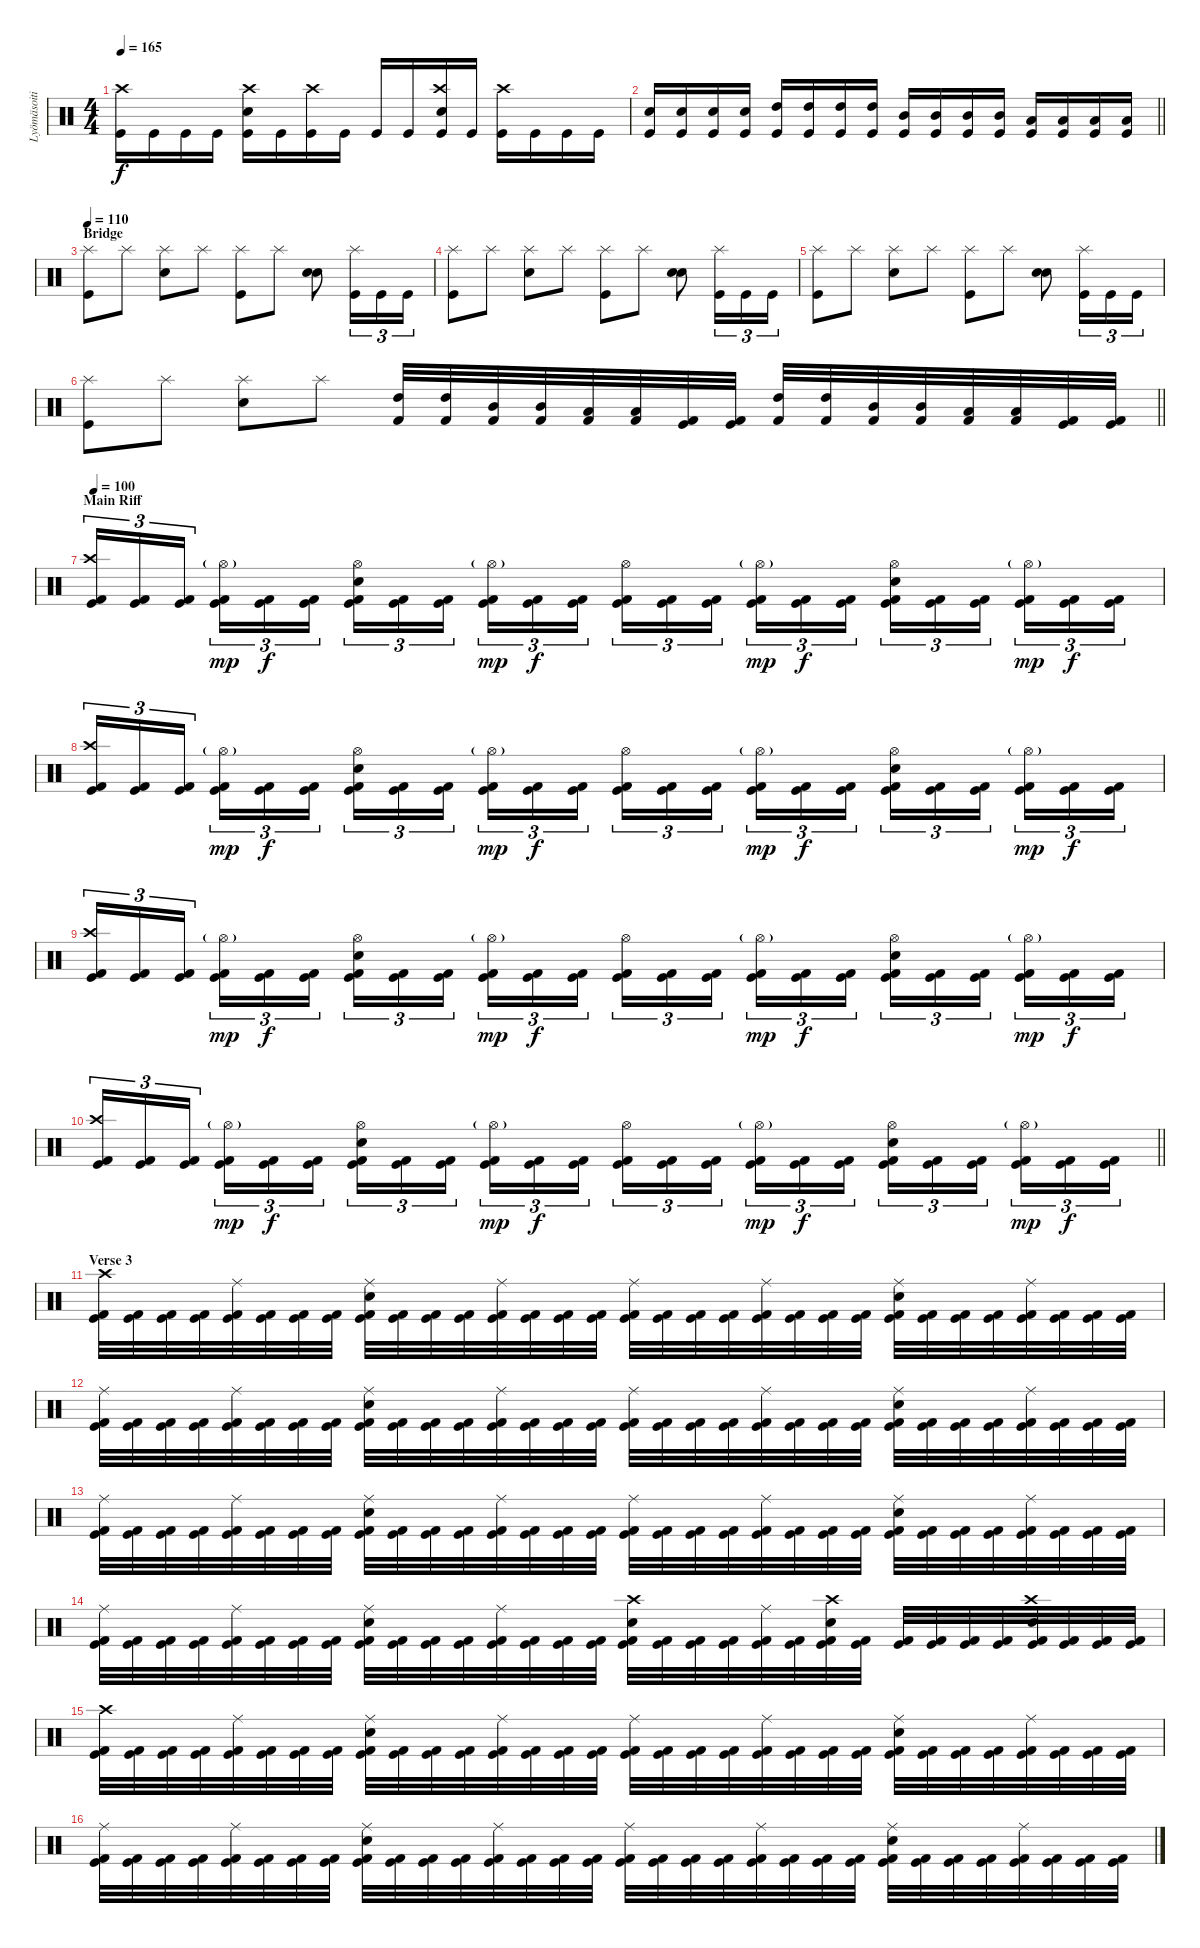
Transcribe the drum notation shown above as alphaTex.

\track ("Lyömäsoitin" "Lyömäsoiti") {instrument percussion}
\staff {score}
\articulation defaults
\ts (4 4)
\tempo 165
\clef neutral
\ks c
("Kick (hit)" "Crash high (hit)").16{dy f} "Kick (hit)".16 "Kick (hit)".16 "Kick (hit)".16 ("Kick (hit)" "Electric Snare (hit)" "Crash high (hit)").16 "Kick (hit)".16 ("Kick (hit)" "Crash high (hit)").16 "Kick (hit)".16 "Kick (hit)".16 "Kick (hit)".16 ("Kick (hit)" "Electric Snare (hit)" "Crash high (hit)").16 "Kick (hit)".16 ("Kick (hit)" "Crash high (hit)").16 "Kick (hit)".16 "Kick (hit)".16 "Kick (hit)".16 |
\barLineRight lightlight
("Kick (hit)" "Electric Snare (hit)").16 ("Kick (hit)" "Electric Snare (hit)").16 ("Kick (hit)" "Electric Snare (hit)").16 ("Kick (hit)" "Electric Snare (hit)").16 ("Kick (hit)" "High Tom (hit)").16 ("High Tom (hit)" "Kick (hit)").16 ("Kick (hit)" "High Tom (hit)").16 ("Kick (hit)" "High Tom (hit)").16 ("Kick (hit)" "Mid Tom (hit)").16 ("Kick (hit)" "Mid Tom (hit)").16 ("Kick (hit)" "Mid Tom (hit)").16 ("Kick (hit)" "Mid Tom (hit)").16 ("Kick (hit)" "Low Tom (hit)").16 ("Low Tom (hit)" "Kick (hit)").16 ("Kick (hit)" "Low Tom (hit)").16 ("Kick (hit)" "Low Tom (hit)").16 |
\section ("" "Bridge")
\tempo 110
("Splash (hit)" "Kick (hit)").8 "Splash (hit)".8 ("Splash (hit)" "Electric Snare (hit)").8 "Splash (hit)".8 ("Splash (hit)" "Kick (hit)").8 "Splash (hit)".8 ("Electric Snare (hit)" "Electric Snare (hit)").8 ("Splash (hit)" "Kick (hit)").16{tu (3 2)} "Kick (hit)".16{tu (3 2)} "Kick (hit)".16{tu (3 2)} |
("Splash (hit)" "Kick (hit)").8 "Splash (hit)".8 ("Splash (hit)" "Electric Snare (hit)").8 "Splash (hit)".8 ("Splash (hit)" "Kick (hit)").8 "Splash (hit)".8 ("Electric Snare (hit)" "Electric Snare (hit)").8 ("Splash (hit)" "Kick (hit)").16{tu (3 2)} "Kick (hit)".16{tu (3 2)} "Kick (hit)".16{tu (3 2)} |
("Splash (hit)" "Kick (hit)").8 "Splash (hit)".8 ("Splash (hit)" "Electric Snare (hit)").8 "Splash (hit)".8 ("Splash (hit)" "Kick (hit)").8 "Splash (hit)".8 ("Electric Snare (hit)" "Electric Snare (hit)").8 ("Splash (hit)" "Kick (hit)").16{tu (3 2)} "Kick (hit)".16{tu (3 2)} "Kick (hit)".16{tu (3 2)} |
\barLineRight lightlight
("Splash (hit)" "Kick (hit)").8 "Splash (hit)".8 ("Splash (hit)" "Electric Snare (hit)").8 "Splash (hit)".8 ("Kick (hit) 2" "High Tom (hit)").32 ("Kick (hit) 2" "High Tom (hit)").32 ("Kick (hit) 2" "Mid Tom (hit)").32 ("Kick (hit) 2" "Mid Tom (hit)").32 ("Kick (hit) 2" "Low Tom (hit)").32 ("Kick (hit) 2" "Low Tom (hit)").32 ("Kick (hit) 2" "Kick (hit)").32 ("Kick (hit) 2" "Kick (hit)").32 ("Kick (hit) 2" "High Tom (hit)").32 ("Kick (hit) 2" "High Tom (hit)").32 ("Kick (hit) 2" "Mid Tom (hit)").32 ("Kick (hit) 2" "Mid Tom (hit)").32 ("Kick (hit) 2" "Low Tom (hit)").32 ("Kick (hit) 2" "Low Tom (hit)").32 ("Kick (hit) 2" "Kick (hit)").32 ("Kick (hit) 2" "Kick (hit)").32 |
\section ("" "Main Riff")
\tempo 100
("Crash high (hit)" "Kick (hit) 2" "Kick (hit)").16{tu (3 2)} ("Kick (hit) 2" "Kick (hit)").16{tu (3 2)} ("Kick (hit) 2" "Kick (hit)").16{tu (3 2) beam splitsecondary} ("Hi-Hat (open)"{g} "Kick (hit) 2" "Kick (hit)").16{tu (3 2) dy mp} ("Kick (hit) 2" "Kick (hit)").16{tu (3 2) dy f} ("Kick (hit) 2" "Kick (hit)").16{tu (3 2)} ("Electric Snare (hit)" "Hi-Hat (open)" "Kick (hit) 2" "Kick (hit)").16{tu (3 2)} ("Kick (hit) 2" "Kick (hit)").16{tu (3 2)} ("Kick (hit) 2" "Kick (hit)").16{tu (3 2) beam splitsecondary} ("Hi-Hat (open)"{g} "Kick (hit) 2" "Kick (hit)").16{tu (3 2) dy mp} ("Kick (hit) 2" "Kick (hit)").16{tu (3 2) dy f} ("Kick (hit) 2" "Kick (hit)").16{tu (3 2)} ("Hi-Hat (open)" "Kick (hit) 2" "Kick (hit)").16{tu (3 2)} ("Kick (hit) 2" "Kick (hit)").16{tu (3 2)} ("Kick (hit) 2" "Kick (hit)").16{tu (3 2) beam splitsecondary} ("Hi-Hat (open)"{g} "Kick (hit) 2" "Kick (hit)").16{tu (3 2) dy mp} ("Kick (hit) 2" "Kick (hit)").16{tu (3 2) dy f} ("Kick (hit) 2" "Kick (hit)").16{tu (3 2)} ("Electric Snare (hit)" "Hi-Hat (open)" "Kick (hit) 2" "Kick (hit)").16{tu (3 2)} ("Kick (hit) 2" "Kick (hit)").16{tu (3 2)} ("Kick (hit) 2" "Kick (hit)").16{tu (3 2) beam splitsecondary} ("Hi-Hat (open)"{g} "Kick (hit) 2" "Kick (hit)").16{tu (3 2) dy mp} ("Kick (hit) 2" "Kick (hit)").16{tu (3 2) dy f} ("Kick (hit) 2" "Kick (hit)").16{tu (3 2)} |
("Crash high (hit)" "Kick (hit) 2" "Kick (hit)").16{tu (3 2)} ("Kick (hit) 2" "Kick (hit)").16{tu (3 2)} ("Kick (hit) 2" "Kick (hit)").16{tu (3 2) beam splitsecondary} ("Hi-Hat (open)"{g} "Kick (hit) 2" "Kick (hit)").16{tu (3 2) dy mp} ("Kick (hit) 2" "Kick (hit)").16{tu (3 2) dy f} ("Kick (hit) 2" "Kick (hit)").16{tu (3 2)} ("Electric Snare (hit)" "Hi-Hat (open)" "Kick (hit) 2" "Kick (hit)").16{tu (3 2)} ("Kick (hit) 2" "Kick (hit)").16{tu (3 2)} ("Kick (hit) 2" "Kick (hit)").16{tu (3 2) beam splitsecondary} ("Hi-Hat (open)"{g} "Kick (hit) 2" "Kick (hit)").16{tu (3 2) dy mp} ("Kick (hit) 2" "Kick (hit)").16{tu (3 2) dy f} ("Kick (hit) 2" "Kick (hit)").16{tu (3 2)} ("Hi-Hat (open)" "Kick (hit) 2" "Kick (hit)").16{tu (3 2)} ("Kick (hit) 2" "Kick (hit)").16{tu (3 2)} ("Kick (hit) 2" "Kick (hit)").16{tu (3 2) beam splitsecondary} ("Hi-Hat (open)"{g} "Kick (hit) 2" "Kick (hit)").16{tu (3 2) dy mp} ("Kick (hit) 2" "Kick (hit)").16{tu (3 2) dy f} ("Kick (hit) 2" "Kick (hit)").16{tu (3 2)} ("Electric Snare (hit)" "Hi-Hat (open)" "Kick (hit) 2" "Kick (hit)").16{tu (3 2)} ("Kick (hit) 2" "Kick (hit)").16{tu (3 2)} ("Kick (hit) 2" "Kick (hit)").16{tu (3 2) beam splitsecondary} ("Hi-Hat (open)"{g} "Kick (hit) 2" "Kick (hit)").16{tu (3 2) dy mp} ("Kick (hit) 2" "Kick (hit)").16{tu (3 2) dy f} ("Kick (hit) 2" "Kick (hit)").16{tu (3 2)} |
("Crash high (hit)" "Kick (hit) 2" "Kick (hit)").16{tu (3 2)} ("Kick (hit) 2" "Kick (hit)").16{tu (3 2)} ("Kick (hit) 2" "Kick (hit)").16{tu (3 2) beam splitsecondary} ("Hi-Hat (open)"{g} "Kick (hit) 2" "Kick (hit)").16{tu (3 2) dy mp} ("Kick (hit) 2" "Kick (hit)").16{tu (3 2) dy f} ("Kick (hit) 2" "Kick (hit)").16{tu (3 2)} ("Electric Snare (hit)" "Hi-Hat (open)" "Kick (hit) 2" "Kick (hit)").16{tu (3 2)} ("Kick (hit) 2" "Kick (hit)").16{tu (3 2)} ("Kick (hit) 2" "Kick (hit)").16{tu (3 2) beam splitsecondary} ("Hi-Hat (open)"{g} "Kick (hit) 2" "Kick (hit)").16{tu (3 2) dy mp} ("Kick (hit) 2" "Kick (hit)").16{tu (3 2) dy f} ("Kick (hit) 2" "Kick (hit)").16{tu (3 2)} ("Hi-Hat (open)" "Kick (hit) 2" "Kick (hit)").16{tu (3 2)} ("Kick (hit) 2" "Kick (hit)").16{tu (3 2)} ("Kick (hit) 2" "Kick (hit)").16{tu (3 2) beam splitsecondary} ("Hi-Hat (open)"{g} "Kick (hit) 2" "Kick (hit)").16{tu (3 2) dy mp} ("Kick (hit) 2" "Kick (hit)").16{tu (3 2) dy f} ("Kick (hit) 2" "Kick (hit)").16{tu (3 2)} ("Electric Snare (hit)" "Hi-Hat (open)" "Kick (hit) 2" "Kick (hit)").16{tu (3 2)} ("Kick (hit) 2" "Kick (hit)").16{tu (3 2)} ("Kick (hit) 2" "Kick (hit)").16{tu (3 2) beam splitsecondary} ("Hi-Hat (open)"{g} "Kick (hit) 2" "Kick (hit)").16{tu (3 2) dy mp} ("Kick (hit) 2" "Kick (hit)").16{tu (3 2) dy f} ("Kick (hit) 2" "Kick (hit)").16{tu (3 2)} |
\barLineRight lightlight
("Crash high (hit)" "Kick (hit) 2" "Kick (hit)").16{tu (3 2)} ("Kick (hit) 2" "Kick (hit)").16{tu (3 2)} ("Kick (hit) 2" "Kick (hit)").16{tu (3 2) beam splitsecondary} ("Hi-Hat (open)"{g} "Kick (hit) 2" "Kick (hit)").16{tu (3 2) dy mp} ("Kick (hit) 2" "Kick (hit)").16{tu (3 2) dy f} ("Kick (hit) 2" "Kick (hit)").16{tu (3 2)} ("Electric Snare (hit)" "Hi-Hat (open)" "Kick (hit) 2" "Kick (hit)").16{tu (3 2)} ("Kick (hit) 2" "Kick (hit)").16{tu (3 2)} ("Kick (hit) 2" "Kick (hit)").16{tu (3 2) beam splitsecondary} ("Hi-Hat (open)"{g} "Kick (hit) 2" "Kick (hit)").16{tu (3 2) dy mp} ("Kick (hit) 2" "Kick (hit)").16{tu (3 2) dy f} ("Kick (hit) 2" "Kick (hit)").16{tu (3 2)} ("Hi-Hat (open)" "Kick (hit) 2" "Kick (hit)").16{tu (3 2)} ("Kick (hit) 2" "Kick (hit)").16{tu (3 2)} ("Kick (hit) 2" "Kick (hit)").16{tu (3 2) beam splitsecondary} ("Hi-Hat (open)"{g} "Kick (hit) 2" "Kick (hit)").16{tu (3 2) dy mp} ("Kick (hit) 2" "Kick (hit)").16{tu (3 2) dy f} ("Kick (hit) 2" "Kick (hit)").16{tu (3 2)} ("Electric Snare (hit)" "Hi-Hat (open)" "Kick (hit) 2" "Kick (hit)").16{tu (3 2)} ("Kick (hit) 2" "Kick (hit)").16{tu (3 2)} ("Kick (hit) 2" "Kick (hit)").16{tu (3 2) beam splitsecondary} ("Hi-Hat (open)"{g} "Kick (hit) 2" "Kick (hit)").16{tu (3 2) dy mp} ("Kick (hit) 2" "Kick (hit)").16{tu (3 2) dy f} ("Kick (hit) 2" "Kick (hit)").16{tu (3 2)} |
\section ("" "Verse 3")
("Kick (hit) 2" "Crash high (hit)" "Kick (hit)").32 ("Kick (hit) 2" "Kick (hit)").32 ("Kick (hit) 2" "Kick (hit)").32 ("Kick (hit) 2" "Kick (hit)").32 ("Kick (hit) 2" "Ride (middle)" "Kick (hit)").32 ("Kick (hit) 2" "Kick (hit)").32 ("Kick (hit) 2" "Kick (hit)").32 ("Kick (hit) 2" "Kick (hit)").32 ("Kick (hit) 2" "Ride (middle)" "Electric Snare (hit)" "Kick (hit)").32 ("Kick (hit) 2" "Kick (hit)").32 ("Kick (hit) 2" "Kick (hit)").32 ("Kick (hit) 2" "Kick (hit)").32 ("Kick (hit) 2" "Ride (middle)" "Kick (hit)").32 ("Kick (hit) 2" "Kick (hit)").32 ("Kick (hit) 2" "Kick (hit)").32 ("Kick (hit) 2" "Kick (hit)").32 ("Kick (hit) 2" "Ride (middle)" "Kick (hit)").32 ("Kick (hit) 2" "Kick (hit)").32 ("Kick (hit) 2" "Kick (hit)").32 ("Kick (hit) 2" "Kick (hit)").32 ("Kick (hit) 2" "Ride (middle)" "Kick (hit)").32 ("Kick (hit) 2" "Kick (hit)").32 ("Kick (hit) 2" "Kick (hit)").32 ("Kick (hit) 2" "Kick (hit)").32 ("Kick (hit) 2" "Ride (middle)" "Electric Snare (hit)" "Kick (hit)").32 ("Kick (hit) 2" "Kick (hit)").32 ("Kick (hit) 2" "Kick (hit)").32 ("Kick (hit) 2" "Kick (hit)").32 ("Kick (hit) 2" "Ride (middle)" "Kick (hit)").32 ("Kick (hit) 2" "Kick (hit)").32 ("Kick (hit) 2" "Kick (hit)").32 ("Kick (hit) 2" "Kick (hit)").32 |
("Kick (hit) 2" "Ride (middle)" "Kick (hit)").32 ("Kick (hit) 2" "Kick (hit)").32 ("Kick (hit) 2" "Kick (hit)").32 ("Kick (hit) 2" "Kick (hit)").32 ("Kick (hit) 2" "Ride (middle)" "Kick (hit)").32 ("Kick (hit) 2" "Kick (hit)").32 ("Kick (hit) 2" "Kick (hit)").32 ("Kick (hit) 2" "Kick (hit)").32 ("Kick (hit) 2" "Ride (middle)" "Electric Snare (hit)" "Kick (hit)").32 ("Kick (hit) 2" "Kick (hit)").32 ("Kick (hit) 2" "Kick (hit)").32 ("Kick (hit) 2" "Kick (hit)").32 ("Kick (hit) 2" "Ride (middle)" "Kick (hit)").32 ("Kick (hit) 2" "Kick (hit)").32 ("Kick (hit) 2" "Kick (hit)").32 ("Kick (hit) 2" "Kick (hit)").32 ("Kick (hit) 2" "Ride (middle)" "Kick (hit)").32 ("Kick (hit) 2" "Kick (hit)").32 ("Kick (hit) 2" "Kick (hit)").32 ("Kick (hit) 2" "Kick (hit)").32 ("Kick (hit) 2" "Ride (middle)" "Kick (hit)").32 ("Kick (hit) 2" "Kick (hit)").32 ("Kick (hit) 2" "Kick (hit)").32 ("Kick (hit) 2" "Kick (hit)").32 ("Kick (hit) 2" "Ride (middle)" "Electric Snare (hit)" "Kick (hit)").32 ("Kick (hit) 2" "Kick (hit)").32 ("Kick (hit) 2" "Kick (hit)").32 ("Kick (hit) 2" "Kick (hit)").32 ("Kick (hit) 2" "Ride (middle)" "Kick (hit)").32 ("Kick (hit) 2" "Kick (hit)").32 ("Kick (hit) 2" "Kick (hit)").32 ("Kick (hit) 2" "Kick (hit)").32 |
("Kick (hit) 2" "Ride (middle)" "Kick (hit)").32 ("Kick (hit) 2" "Kick (hit)").32 ("Kick (hit) 2" "Kick (hit)").32 ("Kick (hit) 2" "Kick (hit)").32 ("Kick (hit) 2" "Ride (middle)" "Kick (hit)").32 ("Kick (hit) 2" "Kick (hit)").32 ("Kick (hit) 2" "Kick (hit)").32 ("Kick (hit) 2" "Kick (hit)").32 ("Kick (hit) 2" "Ride (middle)" "Electric Snare (hit)" "Kick (hit)").32 ("Kick (hit) 2" "Kick (hit)").32 ("Kick (hit) 2" "Kick (hit)").32 ("Kick (hit) 2" "Kick (hit)").32 ("Kick (hit) 2" "Ride (middle)" "Kick (hit)").32 ("Kick (hit) 2" "Kick (hit)").32 ("Kick (hit) 2" "Kick (hit)").32 ("Kick (hit) 2" "Kick (hit)").32 ("Kick (hit) 2" "Ride (middle)" "Kick (hit)").32 ("Kick (hit) 2" "Kick (hit)").32 ("Kick (hit) 2" "Kick (hit)").32 ("Kick (hit) 2" "Kick (hit)").32 ("Kick (hit) 2" "Ride (middle)" "Kick (hit)").32 ("Kick (hit) 2" "Kick (hit)").32 ("Kick (hit) 2" "Kick (hit)").32 ("Kick (hit) 2" "Kick (hit)").32 ("Kick (hit) 2" "Ride (middle)" "Electric Snare (hit)" "Kick (hit)").32 ("Kick (hit) 2" "Kick (hit)").32 ("Kick (hit) 2" "Kick (hit)").32 ("Kick (hit) 2" "Kick (hit)").32 ("Kick (hit) 2" "Ride (middle)" "Kick (hit)").32 ("Kick (hit) 2" "Kick (hit)").32 ("Kick (hit) 2" "Kick (hit)").32 ("Kick (hit) 2" "Kick (hit)").32 |
("Kick (hit) 2" "Ride (middle)" "Kick (hit)").32 ("Kick (hit) 2" "Kick (hit)").32 ("Kick (hit) 2" "Kick (hit)").32 ("Kick (hit) 2" "Kick (hit)").32 ("Kick (hit) 2" "Ride (middle)" "Kick (hit)").32 ("Kick (hit) 2" "Kick (hit)").32 ("Kick (hit) 2" "Kick (hit)").32 ("Kick (hit) 2" "Kick (hit)").32 ("Kick (hit) 2" "Ride (middle)" "Electric Snare (hit)" "Kick (hit)").32 ("Kick (hit) 2" "Kick (hit)").32 ("Kick (hit) 2" "Kick (hit)").32 ("Kick (hit) 2" "Kick (hit)").32 ("Kick (hit) 2" "Ride (middle)" "Kick (hit)").32 ("Kick (hit) 2" "Kick (hit)").32 ("Kick (hit) 2" "Kick (hit)").32 ("Kick (hit) 2" "Kick (hit)").32 ("Kick (hit) 2" "Crash high (hit)" "Electric Snare (hit)" "Kick (hit)").32 ("Kick (hit) 2" "Kick (hit)").32 ("Kick (hit) 2" "Kick (hit)").32 ("Kick (hit) 2" "Kick (hit)").32 ("Kick (hit) 2" "Ride (middle)" "Kick (hit)").32 ("Kick (hit) 2" "Kick (hit)").32 ("Kick (hit) 2" "Crash high (hit)" "Electric Snare (hit)" "Kick (hit)").32 ("Kick (hit) 2" "Kick (hit)").32 ("Kick (hit) 2" "Kick (hit)").32 ("Kick (hit) 2" "Kick (hit)").32 ("Kick (hit) 2" "Kick (hit)").32 ("Kick (hit) 2" "Kick (hit)").32 ("Kick (hit) 2" "Electric Snare (hit)" "Crash high (hit)" "Kick (hit)").32 ("Kick (hit) 2" "Kick (hit)").32 ("Kick (hit) 2" "Kick (hit)").32 ("Kick (hit) 2" "Kick (hit)").32 |
("Kick (hit) 2" "Crash high (hit)" "Kick (hit)").32 ("Kick (hit) 2" "Kick (hit)").32 ("Kick (hit) 2" "Kick (hit)").32 ("Kick (hit) 2" "Kick (hit)").32 ("Kick (hit) 2" "Ride (middle)" "Kick (hit)").32 ("Kick (hit) 2" "Kick (hit)").32 ("Kick (hit) 2" "Kick (hit)").32 ("Kick (hit) 2" "Kick (hit)").32 ("Kick (hit) 2" "Ride (middle)" "Electric Snare (hit)" "Kick (hit)").32 ("Kick (hit) 2" "Kick (hit)").32 ("Kick (hit) 2" "Kick (hit)").32 ("Kick (hit) 2" "Kick (hit)").32 ("Kick (hit) 2" "Ride (middle)" "Kick (hit)").32 ("Kick (hit) 2" "Kick (hit)").32 ("Kick (hit) 2" "Kick (hit)").32 ("Kick (hit) 2" "Kick (hit)").32 ("Kick (hit) 2" "Ride (middle)" "Kick (hit)").32 ("Kick (hit) 2" "Kick (hit)").32 ("Kick (hit) 2" "Kick (hit)").32 ("Kick (hit) 2" "Kick (hit)").32 ("Kick (hit) 2" "Ride (middle)" "Kick (hit)").32 ("Kick (hit) 2" "Kick (hit)").32 ("Kick (hit) 2" "Kick (hit)").32 ("Kick (hit) 2" "Kick (hit)").32 ("Kick (hit) 2" "Ride (middle)" "Electric Snare (hit)" "Kick (hit)").32 ("Kick (hit) 2" "Kick (hit)").32 ("Kick (hit) 2" "Kick (hit)").32 ("Kick (hit) 2" "Kick (hit)").32 ("Kick (hit) 2" "Ride (middle)" "Kick (hit)").32 ("Kick (hit) 2" "Kick (hit)").32 ("Kick (hit) 2" "Kick (hit)").32 ("Kick (hit) 2" "Kick (hit)").32 |
("Kick (hit) 2" "Ride (middle)" "Kick (hit)").32 ("Kick (hit) 2" "Kick (hit)").32 ("Kick (hit) 2" "Kick (hit)").32 ("Kick (hit) 2" "Kick (hit)").32 ("Kick (hit) 2" "Ride (middle)" "Kick (hit)").32 ("Kick (hit) 2" "Kick (hit)").32 ("Kick (hit) 2" "Kick (hit)").32 ("Kick (hit) 2" "Kick (hit)").32 ("Kick (hit) 2" "Ride (middle)" "Electric Snare (hit)" "Kick (hit)").32 ("Kick (hit) 2" "Kick (hit)").32 ("Kick (hit) 2" "Kick (hit)").32 ("Kick (hit) 2" "Kick (hit)").32 ("Kick (hit) 2" "Ride (middle)" "Kick (hit)").32 ("Kick (hit) 2" "Kick (hit)").32 ("Kick (hit) 2" "Kick (hit)").32 ("Kick (hit) 2" "Kick (hit)").32 ("Kick (hit) 2" "Ride (middle)" "Kick (hit)").32 ("Kick (hit) 2" "Kick (hit)").32 ("Kick (hit) 2" "Kick (hit)").32 ("Kick (hit) 2" "Kick (hit)").32 ("Kick (hit) 2" "Ride (middle)" "Kick (hit)").32 ("Kick (hit) 2" "Kick (hit)").32 ("Kick (hit) 2" "Kick (hit)").32 ("Kick (hit) 2" "Kick (hit)").32 ("Kick (hit) 2" "Ride (middle)" "Electric Snare (hit)" "Kick (hit)").32 ("Kick (hit) 2" "Kick (hit)").32 ("Kick (hit) 2" "Kick (hit)").32 ("Kick (hit) 2" "Kick (hit)").32 ("Kick (hit) 2" "Ride (middle)" "Kick (hit)").32 ("Kick (hit) 2" "Kick (hit)").32 ("Kick (hit) 2" "Kick (hit)").32 ("Kick (hit) 2" "Kick (hit)").32
